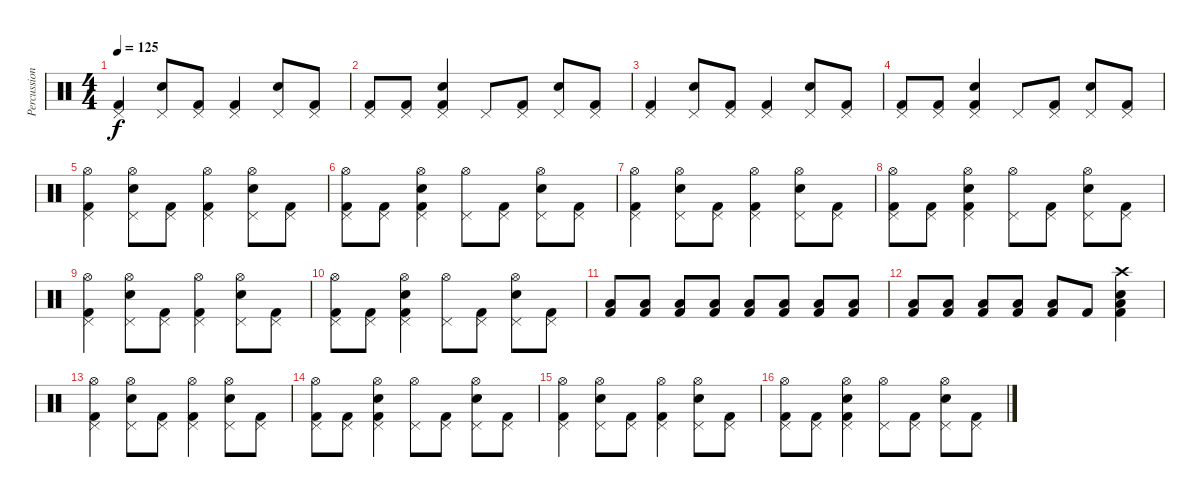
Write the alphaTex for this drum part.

\track ("Percussion" "Percussion") {instrument percussion}
\staff {score}
\articulation defaults
\ts (4 4)
\tempo 125
\clef neutral
\ks c
("Pedal Hi-Hat (hit)" "Kick (hit) 2").4{dy f} ("Pedal Hi-Hat (hit)" "Snare (hit) 2").8 ("Pedal Hi-Hat (hit)" "Kick (hit) 2").8 ("Pedal Hi-Hat (hit)" "Kick (hit) 2").4 ("Pedal Hi-Hat (hit)" "Snare (hit) 2").8 ("Pedal Hi-Hat (hit)" "Kick (hit) 2").8 |
("Pedal Hi-Hat (hit)" "Kick (hit) 2").8 ("Pedal Hi-Hat (hit)" "Kick (hit) 2").8 ("Pedal Hi-Hat (hit)" "Kick (hit) 2" "Snare (hit) 2").4 "Pedal Hi-Hat (hit)".8 ("Pedal Hi-Hat (hit)" "Kick (hit) 2").8 ("Pedal Hi-Hat (hit)" "Snare (hit) 2").8 ("Pedal Hi-Hat (hit)" "Kick (hit) 2").8 |
("Pedal Hi-Hat (hit)" "Kick (hit) 2").4 ("Pedal Hi-Hat (hit)" "Snare (hit) 2").8 ("Pedal Hi-Hat (hit)" "Kick (hit) 2").8 ("Pedal Hi-Hat (hit)" "Kick (hit) 2").4 ("Pedal Hi-Hat (hit)" "Snare (hit) 2").8 ("Pedal Hi-Hat (hit)" "Kick (hit) 2").8 |
("Pedal Hi-Hat (hit)" "Kick (hit) 2").8 ("Pedal Hi-Hat (hit)" "Kick (hit) 2").8 ("Pedal Hi-Hat (hit)" "Kick (hit) 2" "Snare (hit) 2").4 "Pedal Hi-Hat (hit)".8 ("Pedal Hi-Hat (hit)" "Kick (hit) 2").8 ("Pedal Hi-Hat (hit)" "Snare (hit) 2").8 ("Pedal Hi-Hat (hit)" "Kick (hit) 2").8 |
("Pedal Hi-Hat (hit)" "Kick (hit) 2" "Hi-Hat (open)").4 ("Pedal Hi-Hat (hit)" "Snare (hit) 2" "Hi-Hat (open)").8 ("Pedal Hi-Hat (hit)" "Kick (hit) 2").8 ("Pedal Hi-Hat (hit)" "Kick (hit) 2" "Hi-Hat (open)").4 ("Pedal Hi-Hat (hit)" "Snare (hit) 2" "Hi-Hat (open)").8 ("Pedal Hi-Hat (hit)" "Kick (hit) 2").8 |
("Pedal Hi-Hat (hit)" "Kick (hit) 2" "Hi-Hat (open)").8 ("Pedal Hi-Hat (hit)" "Kick (hit) 2").8 ("Pedal Hi-Hat (hit)" "Kick (hit) 2" "Snare (hit) 2" "Hi-Hat (open)").4 ("Pedal Hi-Hat (hit)" "Hi-Hat (open)").8 ("Pedal Hi-Hat (hit)" "Kick (hit) 2").8 ("Pedal Hi-Hat (hit)" "Snare (hit) 2" "Hi-Hat (open)").8 ("Pedal Hi-Hat (hit)" "Kick (hit) 2").8 |
("Pedal Hi-Hat (hit)" "Kick (hit) 2" "Hi-Hat (open)").4 ("Pedal Hi-Hat (hit)" "Snare (hit) 2" "Hi-Hat (open)").8 ("Pedal Hi-Hat (hit)" "Kick (hit) 2").8 ("Pedal Hi-Hat (hit)" "Kick (hit) 2" "Hi-Hat (open)").4 ("Pedal Hi-Hat (hit)" "Snare (hit) 2" "Hi-Hat (open)").8 ("Pedal Hi-Hat (hit)" "Kick (hit) 2").8 |
("Pedal Hi-Hat (hit)" "Kick (hit) 2" "Hi-Hat (open)").8 ("Pedal Hi-Hat (hit)" "Kick (hit) 2").8 ("Pedal Hi-Hat (hit)" "Kick (hit) 2" "Snare (hit) 2" "Hi-Hat (open)").4 ("Pedal Hi-Hat (hit)" "Hi-Hat (open)").8 ("Pedal Hi-Hat (hit)" "Kick (hit) 2").8 ("Pedal Hi-Hat (hit)" "Snare (hit) 2" "Hi-Hat (open)").8 ("Pedal Hi-Hat (hit)" "Kick (hit) 2").8 |
("Pedal Hi-Hat (hit)" "Kick (hit) 2" "Hi-Hat (open)").4 ("Pedal Hi-Hat (hit)" "Snare (hit) 2" "Hi-Hat (open)").8 ("Pedal Hi-Hat (hit)" "Kick (hit) 2").8 ("Pedal Hi-Hat (hit)" "Kick (hit) 2" "Hi-Hat (open)").4 ("Pedal Hi-Hat (hit)" "Snare (hit) 2" "Hi-Hat (open)").8 ("Pedal Hi-Hat (hit)" "Kick (hit) 2").8 |
("Pedal Hi-Hat (hit)" "Kick (hit) 2" "Hi-Hat (open)").8 ("Pedal Hi-Hat (hit)" "Kick (hit) 2").8 ("Pedal Hi-Hat (hit)" "Kick (hit) 2" "Snare (hit) 2" "Hi-Hat (open)").4 ("Pedal Hi-Hat (hit)" "Hi-Hat (open)").8 ("Pedal Hi-Hat (hit)" "Kick (hit) 2").8 ("Pedal Hi-Hat (hit)" "Snare (hit) 2" "Hi-Hat (open)").8 ("Pedal Hi-Hat (hit)" "Kick (hit) 2").8 |
("Kick (hit) 2" "Low Tom (hit)").8 ("Kick (hit) 2" "Low Tom (hit)").8 ("Kick (hit) 2" "Low Tom (hit)").8 ("Kick (hit) 2" "Low Tom (hit)").8 ("Kick (hit) 2" "Low Tom (hit)").8 ("Kick (hit) 2" "Low Tom (hit)").8 ("Kick (hit) 2" "Low Tom (hit)").8 ("Kick (hit) 2" "Low Tom (hit)").8 |
("Kick (hit) 2" "Low Tom (hit)").8 ("Kick (hit) 2" "Low Tom (hit)").8 ("Kick (hit) 2" "Low Tom (hit)").8 ("Kick (hit) 2" "Low Tom (hit)").8 ("Kick (hit) 2" "Low Tom (hit)").8 "Kick (hit) 2".8 ("Crash high (hit)" "Kick (hit) 2" "Snare (hit) 2" "Low Tom (hit)").4 |
("Pedal Hi-Hat (hit)" "Kick (hit) 2" "Hi-Hat (open)").4 ("Pedal Hi-Hat (hit)" "Snare (hit) 2" "Hi-Hat (open)").8 ("Pedal Hi-Hat (hit)" "Kick (hit) 2").8 ("Pedal Hi-Hat (hit)" "Kick (hit) 2" "Hi-Hat (open)").4 ("Pedal Hi-Hat (hit)" "Snare (hit) 2" "Hi-Hat (open)").8 ("Pedal Hi-Hat (hit)" "Kick (hit) 2").8 |
("Pedal Hi-Hat (hit)" "Kick (hit) 2" "Hi-Hat (open)").8 ("Pedal Hi-Hat (hit)" "Kick (hit) 2").8 ("Pedal Hi-Hat (hit)" "Kick (hit) 2" "Snare (hit) 2" "Hi-Hat (open)").4 ("Pedal Hi-Hat (hit)" "Hi-Hat (open)").8 ("Pedal Hi-Hat (hit)" "Kick (hit) 2").8 ("Pedal Hi-Hat (hit)" "Snare (hit) 2" "Hi-Hat (open)").8 ("Pedal Hi-Hat (hit)" "Kick (hit) 2").8 |
("Pedal Hi-Hat (hit)" "Kick (hit) 2" "Hi-Hat (open)").4 ("Pedal Hi-Hat (hit)" "Snare (hit) 2" "Hi-Hat (open)").8 ("Pedal Hi-Hat (hit)" "Kick (hit) 2").8 ("Pedal Hi-Hat (hit)" "Kick (hit) 2" "Hi-Hat (open)").4 ("Pedal Hi-Hat (hit)" "Snare (hit) 2" "Hi-Hat (open)").8 ("Pedal Hi-Hat (hit)" "Kick (hit) 2").8 |
("Pedal Hi-Hat (hit)" "Kick (hit) 2" "Hi-Hat (open)").8 ("Pedal Hi-Hat (hit)" "Kick (hit) 2").8 ("Pedal Hi-Hat (hit)" "Kick (hit) 2" "Snare (hit) 2" "Hi-Hat (open)").4 ("Pedal Hi-Hat (hit)" "Hi-Hat (open)").8 ("Pedal Hi-Hat (hit)" "Kick (hit) 2").8 ("Pedal Hi-Hat (hit)" "Snare (hit) 2" "Hi-Hat (open)").8 ("Pedal Hi-Hat (hit)" "Kick (hit) 2").8
